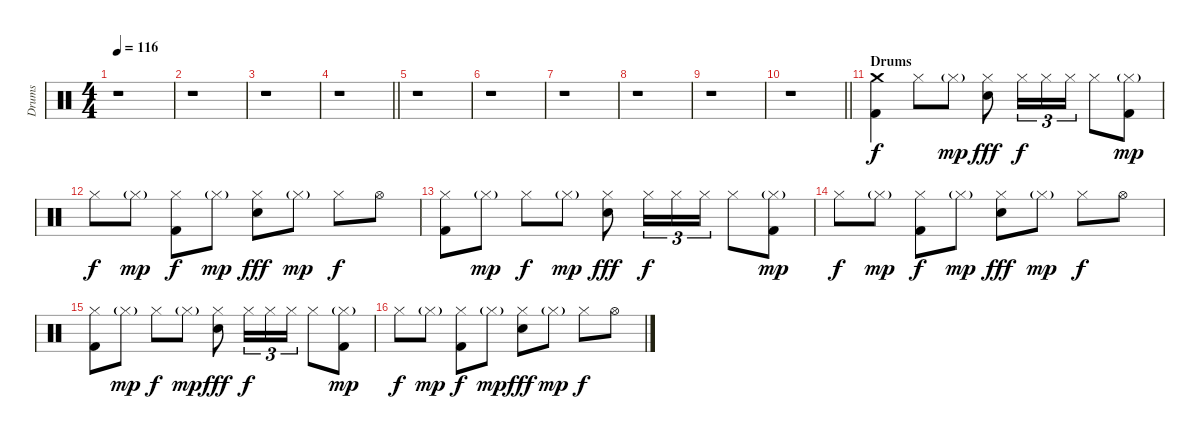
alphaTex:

\track ("Drums" "Drums") {instrument percussion}
\staff {score}
\articulation defaults
\ts (4 4)
\tempo 116
\clef neutral
\ks c
r.1{dy f} |
r.1 |
r.1 |
\barLineRight lightlight
r.1 |
r.1 |
r.1 |
r.1 |
r.1 |
r.1 |
\barLineRight lightlight
r.1 |
\section ("" "Drums")
("Crash medium (hit)" "Kick (hit) 2").4 "Hi-Hat (closed)".8 "Hi-Hat (closed)"{g}.8{dy mp} ("Hi-Hat (closed)" "Electric Snare (hit)").8{dy fff} "Hi-Hat (closed)".16{tu (3 2) dy f} "Hi-Hat (closed)".16{tu (3 2)} "Hi-Hat (closed)".16{tu (3 2)} "Hi-Hat (closed)".8 ("Hi-Hat (closed)"{g} "Kick (hit) 2").8{dy mp} |
"Hi-Hat (closed)".8{dy f} "Hi-Hat (closed)"{g}.8{dy mp} ("Hi-Hat (closed)" "Kick (hit) 2").8{dy f} "Hi-Hat (closed)"{g}.8{dy mp} ("Hi-Hat (closed)" "Electric Snare (hit)").8{dy fff} "Hi-Hat (closed)"{g}.8{dy mp} "Hi-Hat (closed)".8{dy f} "Hi-Hat (open)".8 |
("Hi-Hat (closed)" "Kick (hit) 2").8 "Hi-Hat (closed)"{g}.8{dy mp} "Hi-Hat (closed)".8{dy f} "Hi-Hat (closed)"{g}.8{dy mp} ("Hi-Hat (closed)" "Electric Snare (hit)").8{dy fff} "Hi-Hat (closed)".16{tu (3 2) dy f} "Hi-Hat (closed)".16{tu (3 2)} "Hi-Hat (closed)".16{tu (3 2)} "Hi-Hat (closed)".8 ("Hi-Hat (closed)"{g} "Kick (hit) 2").8{dy mp} |
"Hi-Hat (closed)".8{dy f} "Hi-Hat (closed)"{g}.8{dy mp} ("Hi-Hat (closed)" "Kick (hit) 2").8{dy f} "Hi-Hat (closed)"{g}.8{dy mp} ("Hi-Hat (closed)" "Electric Snare (hit)").8{dy fff} "Hi-Hat (closed)"{g}.8{dy mp} "Hi-Hat (closed)".8{dy f} "Hi-Hat (open)".8 |
("Hi-Hat (closed)" "Kick (hit) 2").8 "Hi-Hat (closed)"{g}.8{dy mp} "Hi-Hat (closed)".8{dy f} "Hi-Hat (closed)"{g}.8{dy mp} ("Hi-Hat (closed)" "Electric Snare (hit)").8{dy fff} "Hi-Hat (closed)".16{tu (3 2) dy f} "Hi-Hat (closed)".16{tu (3 2)} "Hi-Hat (closed)".16{tu (3 2)} "Hi-Hat (closed)".8 ("Hi-Hat (closed)"{g} "Kick (hit) 2").8{dy mp} |
"Hi-Hat (closed)".8{dy f} "Hi-Hat (closed)"{g}.8{dy mp} ("Hi-Hat (closed)" "Kick (hit) 2").8{dy f} "Hi-Hat (closed)"{g}.8{dy mp} ("Hi-Hat (closed)" "Electric Snare (hit)").8{dy fff} "Hi-Hat (closed)"{g}.8{dy mp} "Hi-Hat (closed)".8{dy f} "Hi-Hat (open)".8
